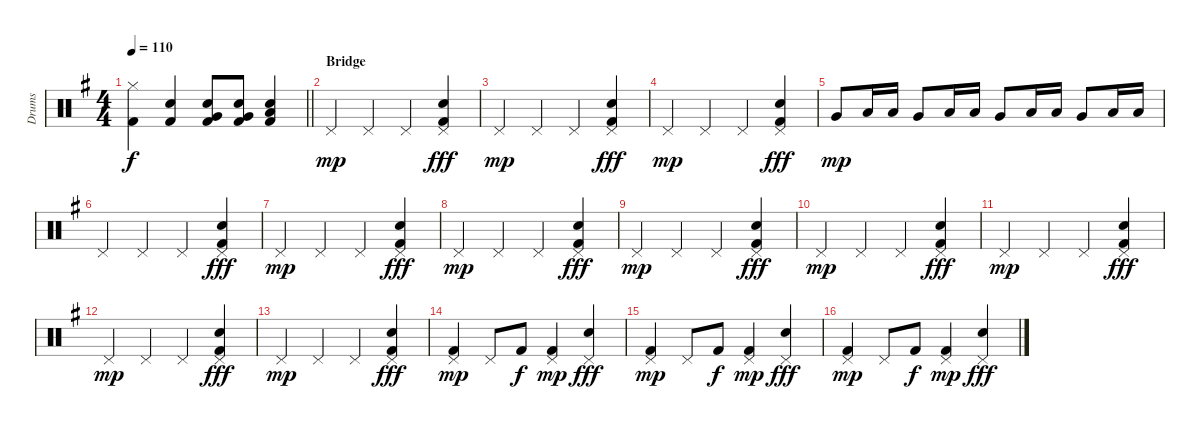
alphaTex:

\track ("Drums" "Drums") {instrument percussion}
\staff {score}
\articulation defaults
\ts (4 4)
\tempo 110
\clef neutral
\barLineRight lightlight
\ks g
("Hi-Hat (closed)" "Kick (hit) 2").4{dy f} ("Snare (hit) 2" "Kick (hit) 2").4 ("Very Low Tom (hit)" "Snare (hit) 2" "Kick (hit) 2").8 ("Very Low Tom (hit)" "Snare (hit) 2" "Kick (hit) 2").8 ("Low Floor Tom (hit)" "Snare (hit) 2" "Kick (hit) 2").4 |
\section ("" "Bridge")
"Pedal Hi-Hat (hit)".4{dy mp volume 16} "Pedal Hi-Hat (hit)".4 "Pedal Hi-Hat (hit)".4 ("Pedal Hi-Hat (hit)" "Snare (hit) 2" "Kick (hit) 2").4{dy fff} |
"Pedal Hi-Hat (hit)".4{dy mp} "Pedal Hi-Hat (hit)".4 "Pedal Hi-Hat (hit)".4 ("Pedal Hi-Hat (hit)" "Snare (hit) 2" "Kick (hit) 2").4{dy fff} |
"Pedal Hi-Hat (hit)".4{dy mp} "Pedal Hi-Hat (hit)".4 "Pedal Hi-Hat (hit)".4 ("Pedal Hi-Hat (hit)" "Snare (hit) 2" "Kick (hit) 2").4{dy fff} |
"Very Low Tom (hit)".8{dy mp} "Low Floor Tom (hit)".16 "Low Floor Tom (hit)".16 "Very Low Tom (hit)".8 "Low Floor Tom (hit)".16 "Low Floor Tom (hit)".16 "Very Low Tom (hit)".8 "Low Floor Tom (hit)".16 "Low Floor Tom (hit)".16 "Very Low Tom (hit)".8 "Low Floor Tom (hit)".16 "Low Floor Tom (hit)".16 |
"Pedal Hi-Hat (hit)".4 "Pedal Hi-Hat (hit)".4 "Pedal Hi-Hat (hit)".4 ("Pedal Hi-Hat (hit)" "Snare (hit) 2" "Kick (hit) 2").4{dy fff} |
"Pedal Hi-Hat (hit)".4{dy mp} "Pedal Hi-Hat (hit)".4 "Pedal Hi-Hat (hit)".4 ("Pedal Hi-Hat (hit)" "Snare (hit) 2" "Kick (hit) 2").4{dy fff} |
"Pedal Hi-Hat (hit)".4{dy mp} "Pedal Hi-Hat (hit)".4 "Pedal Hi-Hat (hit)".4 ("Pedal Hi-Hat (hit)" "Snare (hit) 2" "Kick (hit) 2").4{dy fff} |
"Pedal Hi-Hat (hit)".4{dy mp} "Pedal Hi-Hat (hit)".4 "Pedal Hi-Hat (hit)".4 ("Pedal Hi-Hat (hit)" "Snare (hit) 2" "Kick (hit) 2").4{dy fff} |
"Pedal Hi-Hat (hit)".4{dy mp} "Pedal Hi-Hat (hit)".4 "Pedal Hi-Hat (hit)".4 ("Pedal Hi-Hat (hit)" "Snare (hit) 2" "Kick (hit) 2").4{dy fff} |
"Pedal Hi-Hat (hit)".4{dy mp} "Pedal Hi-Hat (hit)".4 "Pedal Hi-Hat (hit)".4 ("Pedal Hi-Hat (hit)" "Snare (hit) 2" "Kick (hit) 2").4{dy fff} |
"Pedal Hi-Hat (hit)".4{dy mp} "Pedal Hi-Hat (hit)".4 "Pedal Hi-Hat (hit)".4 ("Pedal Hi-Hat (hit)" "Snare (hit) 2" "Kick (hit) 2").4{dy fff} |
"Pedal Hi-Hat (hit)".4{dy mp} "Pedal Hi-Hat (hit)".4 "Pedal Hi-Hat (hit)".4 ("Pedal Hi-Hat (hit)" "Snare (hit) 2" "Kick (hit) 2").4{dy fff} |
("Pedal Hi-Hat (hit)" "Kick (hit) 2").4{dy mp} "Pedal Hi-Hat (hit)".8 "Kick (hit) 2".8{dy f} ("Pedal Hi-Hat (hit)" "Kick (hit) 2").4{dy mp} ("Pedal Hi-Hat (hit)" "Snare (hit) 2").4{dy fff} |
("Pedal Hi-Hat (hit)" "Kick (hit) 2").4{dy mp} "Pedal Hi-Hat (hit)".8 "Kick (hit) 2".8{dy f} ("Pedal Hi-Hat (hit)" "Kick (hit) 2").4{dy mp} ("Pedal Hi-Hat (hit)" "Snare (hit) 2").4{dy fff} |
("Pedal Hi-Hat (hit)" "Kick (hit) 2").4{dy mp} "Pedal Hi-Hat (hit)".8 "Kick (hit) 2".8{dy f} ("Pedal Hi-Hat (hit)" "Kick (hit) 2").4{dy mp} ("Pedal Hi-Hat (hit)" "Snare (hit) 2").4{dy fff}
